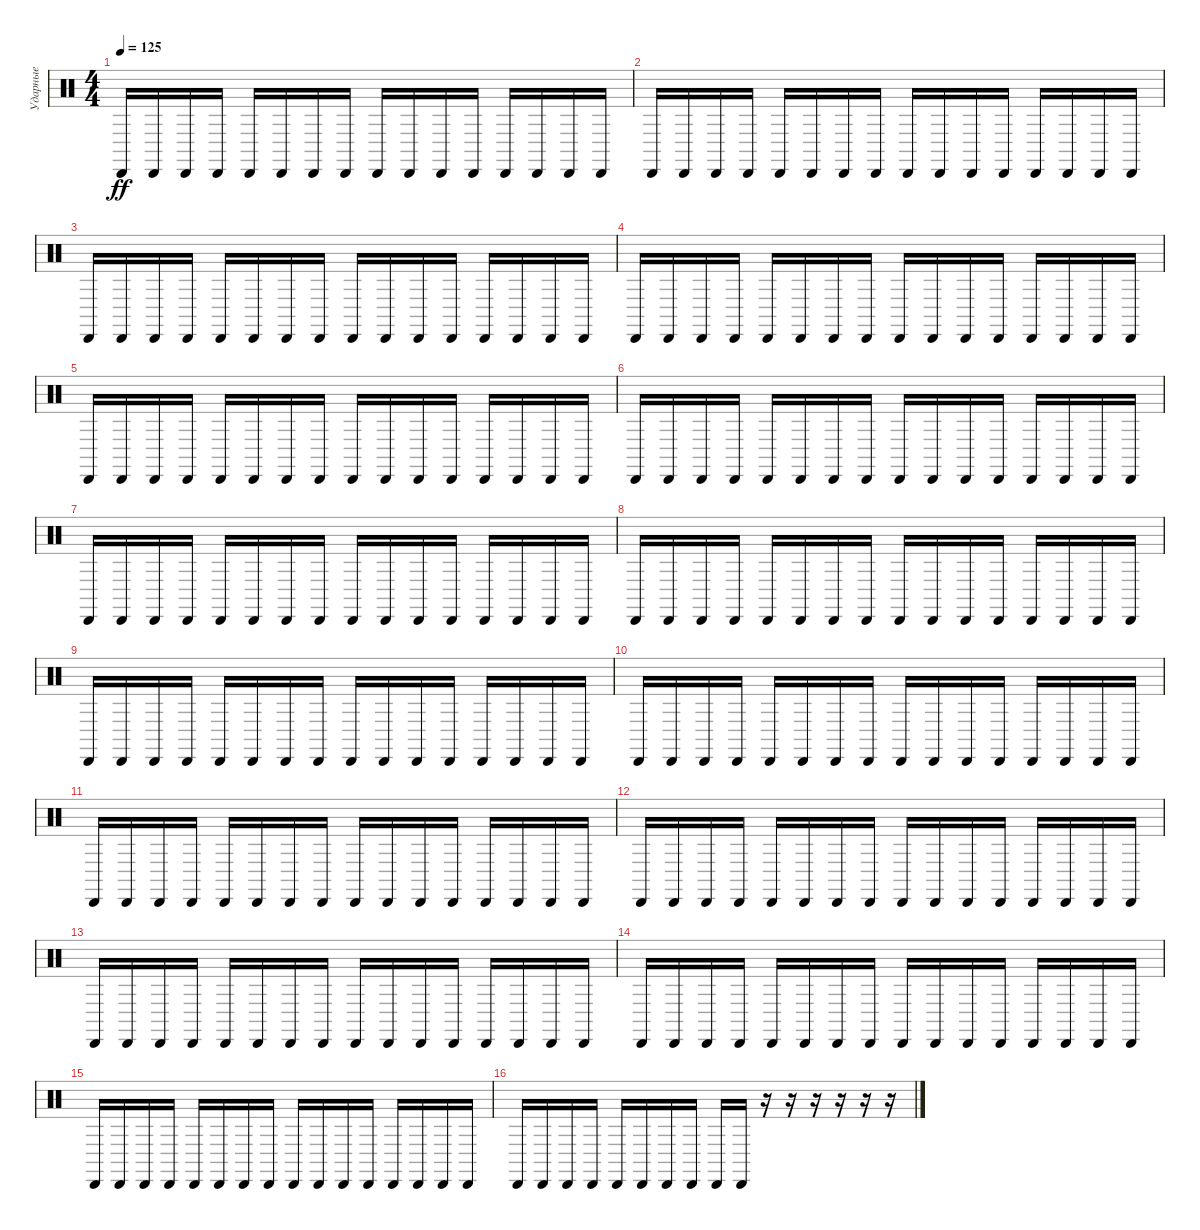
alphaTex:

\track ("Ударные" "Ударные") {instrument percussion}
\staff {score}
\articulation defaults
\ts (4 4)
\tempo 125
\clef neutral
\ks c "Cabasa (hit)".16{dy ff} "Cabasa (hit)".16 "Cabasa (hit)".16 "Cabasa (hit)".16 "Cabasa (hit)".16 "Cabasa (hit)".16 "Cabasa (hit)".16 "Cabasa (hit)".16 "Cabasa (hit)".16 "Cabasa (hit)".16 "Cabasa (hit)".16 "Cabasa (hit)".16 "Cabasa (hit)".16 "Cabasa (hit)".16 "Cabasa (hit)".16 "Cabasa (hit)".16
|
"Cabasa (hit)".16 "Cabasa (hit)".16 "Cabasa (hit)".16 "Cabasa (hit)".16 "Cabasa (hit)".16 "Cabasa (hit)".16 "Cabasa (hit)".16 "Cabasa (hit)".16 "Cabasa (hit)".16 "Cabasa (hit)".16 "Cabasa (hit)".16 "Cabasa (hit)".16 "Cabasa (hit)".16 "Cabasa (hit)".16 "Cabasa (hit)".16 "Cabasa (hit)".16 |
"Cabasa (hit)".16 "Cabasa (hit)".16 "Cabasa (hit)".16 "Cabasa (hit)".16 "Cabasa (hit)".16 "Cabasa (hit)".16 "Cabasa (hit)".16 "Cabasa (hit)".16 "Cabasa (hit)".16 "Cabasa (hit)".16 "Cabasa (hit)".16 "Cabasa (hit)".16 "Cabasa (hit)".16 "Cabasa (hit)".16 "Cabasa (hit)".16 "Cabasa (hit)".16 |
"Cabasa (hit)".16 "Cabasa (hit)".16 "Cabasa (hit)".16 "Cabasa (hit)".16 "Cabasa (hit)".16 "Cabasa (hit)".16 "Cabasa (hit)".16 "Cabasa (hit)".16 "Cabasa (hit)".16 "Cabasa (hit)".16 "Cabasa (hit)".16 "Cabasa (hit)".16 "Cabasa (hit)".16 "Cabasa (hit)".16 "Cabasa (hit)".16 "Cabasa (hit)".16 |
"Cabasa (hit)".16 "Cabasa (hit)".16 "Cabasa (hit)".16 "Cabasa (hit)".16 "Cabasa (hit)".16 "Cabasa (hit)".16 "Cabasa (hit)".16 "Cabasa (hit)".16 "Cabasa (hit)".16 "Cabasa (hit)".16 "Cabasa (hit)".16 "Cabasa (hit)".16 "Cabasa (hit)".16 "Cabasa (hit)".16 "Cabasa (hit)".16 "Cabasa (hit)".16 |
"Cabasa (hit)".16 "Cabasa (hit)".16 "Cabasa (hit)".16 "Cabasa (hit)".16 "Cabasa (hit)".16 "Cabasa (hit)".16 "Cabasa (hit)".16 "Cabasa (hit)".16 "Cabasa (hit)".16 "Cabasa (hit)".16 "Cabasa (hit)".16 "Cabasa (hit)".16 "Cabasa (hit)".16 "Cabasa (hit)".16 "Cabasa (hit)".16 "Cabasa (hit)".16 |
"Cabasa (hit)".16 "Cabasa (hit)".16 "Cabasa (hit)".16 "Cabasa (hit)".16 "Cabasa (hit)".16 "Cabasa (hit)".16 "Cabasa (hit)".16 "Cabasa (hit)".16 "Cabasa (hit)".16 "Cabasa (hit)".16 "Cabasa (hit)".16 "Cabasa (hit)".16 "Cabasa (hit)".16 "Cabasa (hit)".16 "Cabasa (hit)".16 "Cabasa (hit)".16 |
"Cabasa (hit)".16 "Cabasa (hit)".16 "Cabasa (hit)".16 "Cabasa (hit)".16 "Cabasa (hit)".16 "Cabasa (hit)".16 "Cabasa (hit)".16 "Cabasa (hit)".16 "Cabasa (hit)".16 "Cabasa (hit)".16 "Cabasa (hit)".16 "Cabasa (hit)".16 "Cabasa (hit)".16 "Cabasa (hit)".16 "Cabasa (hit)".16 "Cabasa (hit)".16 |
"Cabasa (hit)".16 "Cabasa (hit)".16 "Cabasa (hit)".16 "Cabasa (hit)".16 "Cabasa (hit)".16 "Cabasa (hit)".16 "Cabasa (hit)".16 "Cabasa (hit)".16 "Cabasa (hit)".16 "Cabasa (hit)".16 "Cabasa (hit)".16 "Cabasa (hit)".16 "Cabasa (hit)".16 "Cabasa (hit)".16 "Cabasa (hit)".16 "Cabasa (hit)".16 |
"Cabasa (hit)".16 "Cabasa (hit)".16 "Cabasa (hit)".16 "Cabasa (hit)".16 "Cabasa (hit)".16 "Cabasa (hit)".16 "Cabasa (hit)".16 "Cabasa (hit)".16 "Cabasa (hit)".16 "Cabasa (hit)".16 "Cabasa (hit)".16 "Cabasa (hit)".16 "Cabasa (hit)".16 "Cabasa (hit)".16 "Cabasa (hit)".16 "Cabasa (hit)".16 |
"Cabasa (hit)".16 "Cabasa (hit)".16 "Cabasa (hit)".16 "Cabasa (hit)".16 "Cabasa (hit)".16 "Cabasa (hit)".16 "Cabasa (hit)".16 "Cabasa (hit)".16 "Cabasa (hit)".16 "Cabasa (hit)".16 "Cabasa (hit)".16 "Cabasa (hit)".16 "Cabasa (hit)".16 "Cabasa (hit)".16 "Cabasa (hit)".16 "Cabasa (hit)".16 |
"Cabasa (hit)".16 "Cabasa (hit)".16 "Cabasa (hit)".16 "Cabasa (hit)".16 "Cabasa (hit)".16 "Cabasa (hit)".16 "Cabasa (hit)".16 "Cabasa (hit)".16 "Cabasa (hit)".16 "Cabasa (hit)".16 "Cabasa (hit)".16 "Cabasa (hit)".16 "Cabasa (hit)".16 "Cabasa (hit)".16 "Cabasa (hit)".16 "Cabasa (hit)".16 |
"Cabasa (hit)".16 "Cabasa (hit)".16 "Cabasa (hit)".16 "Cabasa (hit)".16 "Cabasa (hit)".16 "Cabasa (hit)".16 "Cabasa (hit)".16 "Cabasa (hit)".16 "Cabasa (hit)".16 "Cabasa (hit)".16 "Cabasa (hit)".16 "Cabasa (hit)".16 "Cabasa (hit)".16 "Cabasa (hit)".16 "Cabasa (hit)".16 "Cabasa (hit)".16 |
"Cabasa (hit)".16 "Cabasa (hit)".16 "Cabasa (hit)".16 "Cabasa (hit)".16 "Cabasa (hit)".16 "Cabasa (hit)".16 "Cabasa (hit)".16 "Cabasa (hit)".16 "Cabasa (hit)".16 "Cabasa (hit)".16 "Cabasa (hit)".16 "Cabasa (hit)".16 "Cabasa (hit)".16 "Cabasa (hit)".16 "Cabasa (hit)".16 "Cabasa (hit)".16 |
"Cabasa (hit)".16 "Cabasa (hit)".16 "Cabasa (hit)".16 "Cabasa (hit)".16 "Cabasa (hit)".16 "Cabasa (hit)".16 "Cabasa (hit)".16 "Cabasa (hit)".16 "Cabasa (hit)".16 "Cabasa (hit)".16 "Cabasa (hit)".16 "Cabasa (hit)".16 "Cabasa (hit)".16 "Cabasa (hit)".16 "Cabasa (hit)".16 "Cabasa (hit)".16 |
"Cabasa (hit)".16 "Cabasa (hit)".16 "Cabasa (hit)".16 "Cabasa (hit)".16 "Cabasa (hit)".16 "Cabasa (hit)".16 "Cabasa (hit)".16 "Cabasa (hit)".16 "Cabasa (hit)".16 "Cabasa (hit)".16 r.16 r.16 r.16 r.16 r.16 r.16
